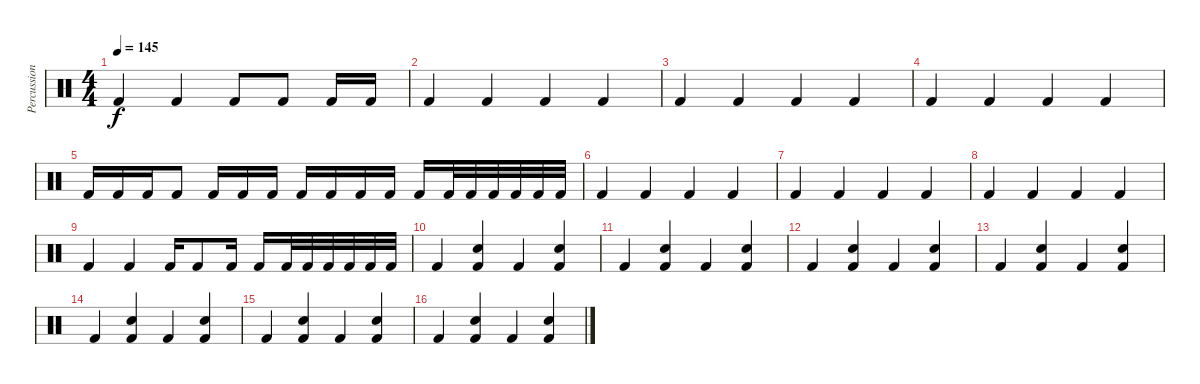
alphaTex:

\track ("Percussion" "Percussion") {instrument percussion}
\staff {score}
\articulation defaults
\ts (4 4)
\tempo 145
\clef neutral
\ks c "Kick (hit) 2".4{dy f} "Kick (hit) 2".4 "Kick (hit) 2".8 "Kick (hit) 2".8 "Kick (hit) 2".16 "Kick (hit) 2".16
|
"Kick (hit) 2".4 "Kick (hit) 2".4 "Kick (hit) 2".4 "Kick (hit) 2".4 |
"Kick (hit) 2".4 "Kick (hit) 2".4 "Kick (hit) 2".4 "Kick (hit) 2".4 |
"Kick (hit) 2".4 "Kick (hit) 2".4 "Kick (hit) 2".4 "Kick (hit) 2".4 |
"Kick (hit) 2".16 "Kick (hit) 2".16 "Kick (hit) 2".16 "Kick (hit) 2".8 "Kick (hit) 2".16 "Kick (hit) 2".16 "Kick (hit) 2".16 "Kick (hit) 2".16 "Kick (hit) 2".16 "Kick (hit) 2".16 "Kick (hit) 2".16 "Kick (hit) 2".16 "Kick (hit) 2".32 "Kick (hit) 2".32 "Kick (hit) 2".32 "Kick (hit) 2".32 "Kick (hit) 2".32 "Kick (hit) 2".32 |
"Kick (hit) 2".4 "Kick (hit) 2".4 "Kick (hit) 2".4 "Kick (hit) 2".4 |
"Kick (hit) 2".4 "Kick (hit) 2".4 "Kick (hit) 2".4 "Kick (hit) 2".4 |
"Kick (hit) 2".4 "Kick (hit) 2".4 "Kick (hit) 2".4 "Kick (hit) 2".4 |
"Kick (hit) 2".4 "Kick (hit) 2".4 "Kick (hit) 2".16 "Kick (hit) 2".8 "Kick (hit) 2".16 "Kick (hit) 2".16 "Kick (hit) 2".32 "Kick (hit) 2".32 "Kick (hit) 2".32 "Kick (hit) 2".32 "Kick (hit) 2".32 "Kick (hit) 2".32 |
"Kick (hit) 2".4 ("Electric Snare (hit)" "Kick (hit) 2").4 "Kick (hit) 2".4 ("Electric Snare (hit)" "Kick (hit) 2").4 |
"Kick (hit) 2".4 ("Electric Snare (hit)" "Kick (hit) 2").4 "Kick (hit) 2".4 ("Electric Snare (hit)" "Kick (hit) 2").4 |
"Kick (hit) 2".4 ("Electric Snare (hit)" "Kick (hit) 2").4 "Kick (hit) 2".4 ("Electric Snare (hit)" "Kick (hit) 2").4 |
"Kick (hit) 2".4 ("Electric Snare (hit)" "Kick (hit) 2").4 "Kick (hit) 2".4 ("Electric Snare (hit)" "Kick (hit) 2").4 |
"Kick (hit) 2".4 ("Electric Snare (hit)" "Kick (hit) 2").4 "Kick (hit) 2".4 ("Electric Snare (hit)" "Kick (hit) 2").4 |
"Kick (hit) 2".4 ("Electric Snare (hit)" "Kick (hit) 2").4 "Kick (hit) 2".4 ("Electric Snare (hit)" "Kick (hit) 2").4 |
"Kick (hit) 2".4 ("Electric Snare (hit)" "Kick (hit) 2").4 "Kick (hit) 2".4 ("Electric Snare (hit)" "Kick (hit) 2").4
